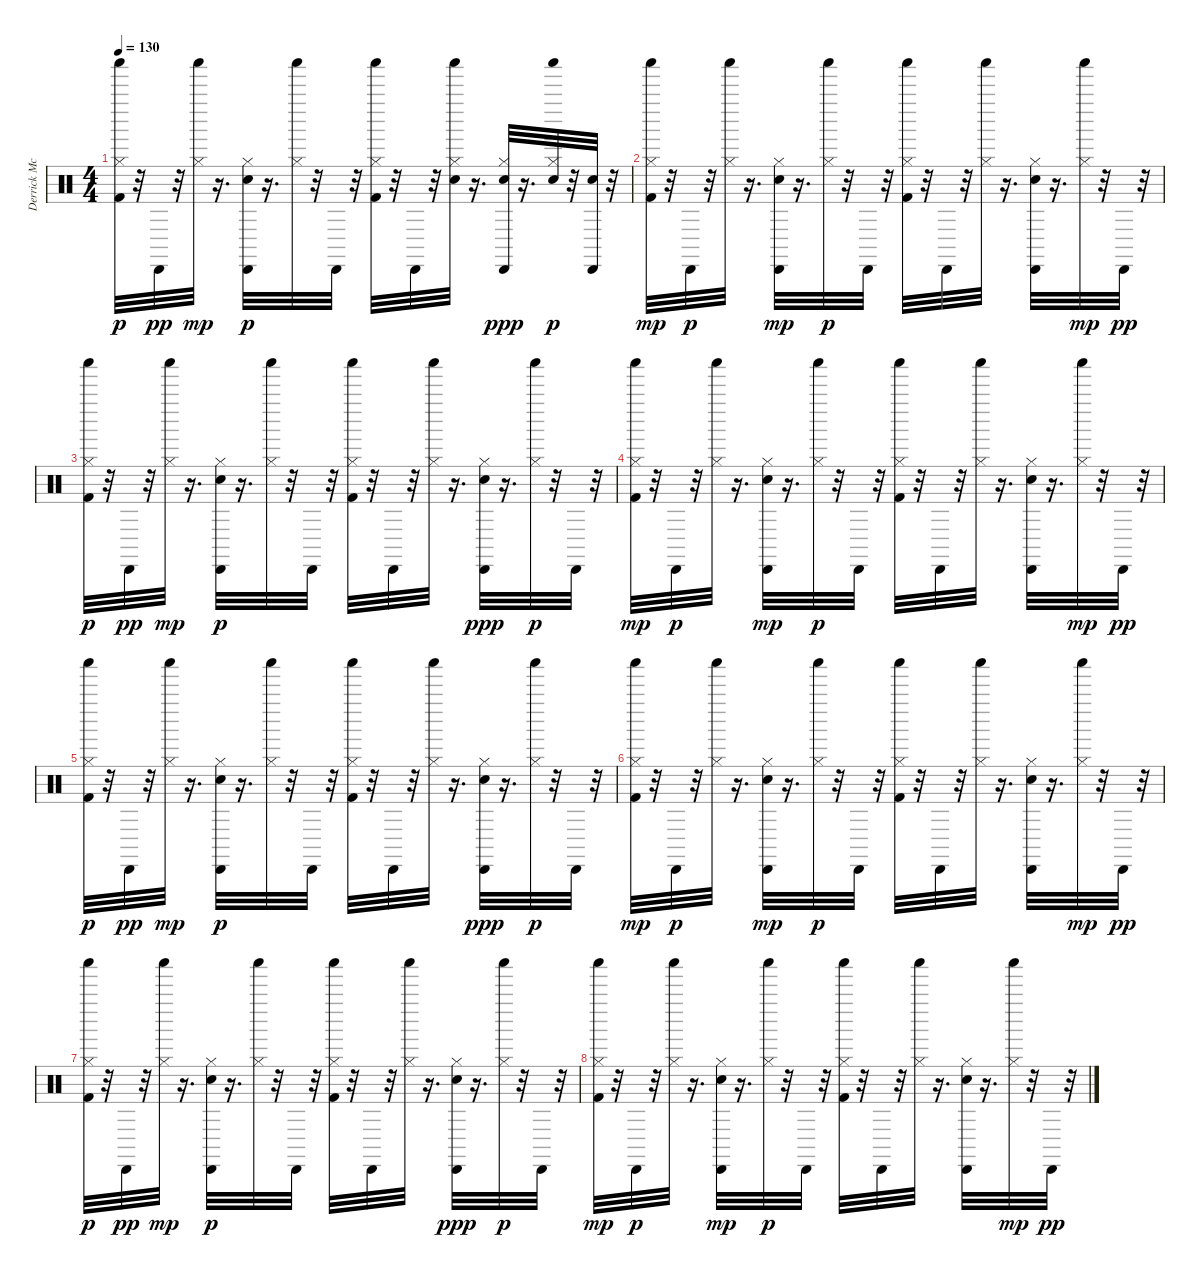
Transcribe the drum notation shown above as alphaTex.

\track ("Derrick McKenzie\\Sola Akingbola - Drums" "Derrick Mc") {instrument percussion}
\staff {score}
\articulation defaults
\ts (4 4)
\tempo 130
\clef neutral
\ks c
("Kick (hit) 2" "Hi-Hat (closed)" "Shaker (hit)").32{dy p} r.32 "Cabasa (hit)".32{dy pp} r.32 ("Hi-Hat (closed)" "Shaker (hit)").32{dy mp} r.16{d} ("Electric Snare (hit)" "Hi-Hat (closed)" "Cabasa (hit)").32{dy p} r.16{d} ("Hi-Hat (closed)" "Shaker (hit)").32 r.32 "Cabasa (hit)".32 r.32 ("Kick (hit) 2" "Hi-Hat (closed)" "Shaker (hit)").32 r.32 "Cabasa (hit)".32 r.32 ("Electric Snare (hit)" "Hi-Hat (closed)" "Shaker (hit)").32 r.16{d} ("Electric Snare (hit)" "Hi-Hat (closed)" "Cabasa (hit)").32{dy ppp} r.16{d} ("Electric Snare (hit)" "Hi-Hat (closed)" "Shaker (hit)").32{dy p} r.32 ("Electric Snare (hit)" "Cabasa (hit)").32 r.32 |
("Kick (hit) 2" "Hi-Hat (closed)" "Shaker (hit)").32{dy mp} r.32 "Cabasa (hit)".32{dy p} r.32 ("Hi-Hat (closed)" "Shaker (hit)").32 r.16{d} ("Electric Snare (hit)" "Hi-Hat (closed)" "Cabasa (hit)").32{dy mp} r.16{d} ("Hi-Hat (closed)" "Shaker (hit)").32{dy p} r.32 "Cabasa (hit)".32 r.32 ("Kick (hit) 2" "Hi-Hat (closed)" "Shaker (hit)").32 r.32 "Cabasa (hit)".32 r.32 ("Hi-Hat (closed)" "Shaker (hit)").32 r.16{d} ("Electric Snare (hit)" "Hi-Hat (closed)" "Cabasa (hit)").32 r.16{d} ("Hi-Hat (closed)" "Shaker (hit)").32{dy mp} r.32 "Cabasa (hit)".32{dy pp} r.32 |
("Kick (hit) 2" "Hi-Hat (closed)" "Shaker (hit)").32{dy p} r.32 "Cabasa (hit)".32{dy pp} r.32 ("Hi-Hat (closed)" "Shaker (hit)").32{dy mp} r.16{d} ("Electric Snare (hit)" "Hi-Hat (closed)" "Cabasa (hit)").32{dy p} r.16{d} ("Hi-Hat (closed)" "Shaker (hit)").32 r.32 "Cabasa (hit)".32 r.32 ("Kick (hit) 2" "Hi-Hat (closed)" "Shaker (hit)").32 r.32 "Cabasa (hit)".32 r.32 ("Hi-Hat (closed)" "Shaker (hit)").32 r.16{d} ("Electric Snare (hit)" "Hi-Hat (closed)" "Cabasa (hit)").32{dy ppp} r.16{d} ("Hi-Hat (closed)" "Shaker (hit)").32{dy p} r.32 "Cabasa (hit)".32 r.32 |
("Kick (hit) 2" "Hi-Hat (closed)" "Shaker (hit)").32{dy mp} r.32 "Cabasa (hit)".32{dy p} r.32 ("Hi-Hat (closed)" "Shaker (hit)").32 r.16{d} ("Electric Snare (hit)" "Hi-Hat (closed)" "Cabasa (hit)").32{dy mp} r.16{d} ("Hi-Hat (closed)" "Shaker (hit)").32{dy p} r.32 "Cabasa (hit)".32 r.32 ("Kick (hit) 2" "Hi-Hat (closed)" "Shaker (hit)").32 r.32 "Cabasa (hit)".32 r.32 ("Hi-Hat (closed)" "Shaker (hit)").32 r.16{d} ("Electric Snare (hit)" "Hi-Hat (closed)" "Cabasa (hit)").32 r.16{d} ("Hi-Hat (closed)" "Shaker (hit)").32{dy mp} r.32 "Cabasa (hit)".32{dy pp} r.32 |
("Kick (hit) 2" "Hi-Hat (closed)" "Shaker (hit)").32{dy p} r.32 "Cabasa (hit)".32{dy pp} r.32 ("Hi-Hat (closed)" "Shaker (hit)").32{dy mp} r.16{d} ("Electric Snare (hit)" "Hi-Hat (closed)" "Cabasa (hit)").32{dy p} r.16{d} ("Hi-Hat (closed)" "Shaker (hit)").32 r.32 "Cabasa (hit)".32 r.32 ("Kick (hit) 2" "Hi-Hat (closed)" "Shaker (hit)").32 r.32 "Cabasa (hit)".32 r.32 ("Hi-Hat (closed)" "Shaker (hit)").32 r.16{d} ("Electric Snare (hit)" "Hi-Hat (closed)" "Cabasa (hit)").32{dy ppp} r.16{d} ("Hi-Hat (closed)" "Shaker (hit)").32{dy p} r.32 "Cabasa (hit)".32 r.32 |
("Kick (hit) 2" "Hi-Hat (closed)" "Shaker (hit)").32{dy mp} r.32 "Cabasa (hit)".32{dy p} r.32 ("Hi-Hat (closed)" "Shaker (hit)").32 r.16{d} ("Electric Snare (hit)" "Hi-Hat (closed)" "Cabasa (hit)").32{dy mp} r.16{d} ("Hi-Hat (closed)" "Shaker (hit)").32{dy p} r.32 "Cabasa (hit)".32 r.32 ("Kick (hit) 2" "Hi-Hat (closed)" "Shaker (hit)").32 r.32 "Cabasa (hit)".32 r.32 ("Hi-Hat (closed)" "Shaker (hit)").32 r.16{d} ("Electric Snare (hit)" "Hi-Hat (closed)" "Cabasa (hit)").32 r.16{d} ("Hi-Hat (closed)" "Shaker (hit)").32{dy mp} r.32 "Cabasa (hit)".32{dy pp} r.32 |
("Kick (hit) 2" "Hi-Hat (closed)" "Shaker (hit)").32{dy p} r.32 "Cabasa (hit)".32{dy pp} r.32 ("Hi-Hat (closed)" "Shaker (hit)").32{dy mp} r.16{d} ("Electric Snare (hit)" "Hi-Hat (closed)" "Cabasa (hit)").32{dy p} r.16{d} ("Hi-Hat (closed)" "Shaker (hit)").32 r.32 "Cabasa (hit)".32 r.32 ("Kick (hit) 2" "Hi-Hat (closed)" "Shaker (hit)").32 r.32 "Cabasa (hit)".32 r.32 ("Hi-Hat (closed)" "Shaker (hit)").32 r.16{d} ("Electric Snare (hit)" "Hi-Hat (closed)" "Cabasa (hit)").32{dy ppp} r.16{d} ("Hi-Hat (closed)" "Shaker (hit)").32{dy p} r.32 "Cabasa (hit)".32 r.32 |
("Kick (hit) 2" "Hi-Hat (closed)" "Shaker (hit)").32{dy mp} r.32 "Cabasa (hit)".32{dy p} r.32 ("Hi-Hat (closed)" "Shaker (hit)").32 r.16{d} ("Electric Snare (hit)" "Hi-Hat (closed)" "Cabasa (hit)").32{dy mp} r.16{d} ("Hi-Hat (closed)" "Shaker (hit)").32{dy p} r.32 "Cabasa (hit)".32 r.32 ("Kick (hit) 2" "Hi-Hat (closed)" "Shaker (hit)").32 r.32 "Cabasa (hit)".32 r.32 ("Hi-Hat (closed)" "Shaker (hit)").32 r.16{d} ("Electric Snare (hit)" "Hi-Hat (closed)" "Cabasa (hit)").32 r.16{d} ("Hi-Hat (closed)" "Shaker (hit)").32{dy mp} r.32 "Cabasa (hit)".32{dy pp} r.32
